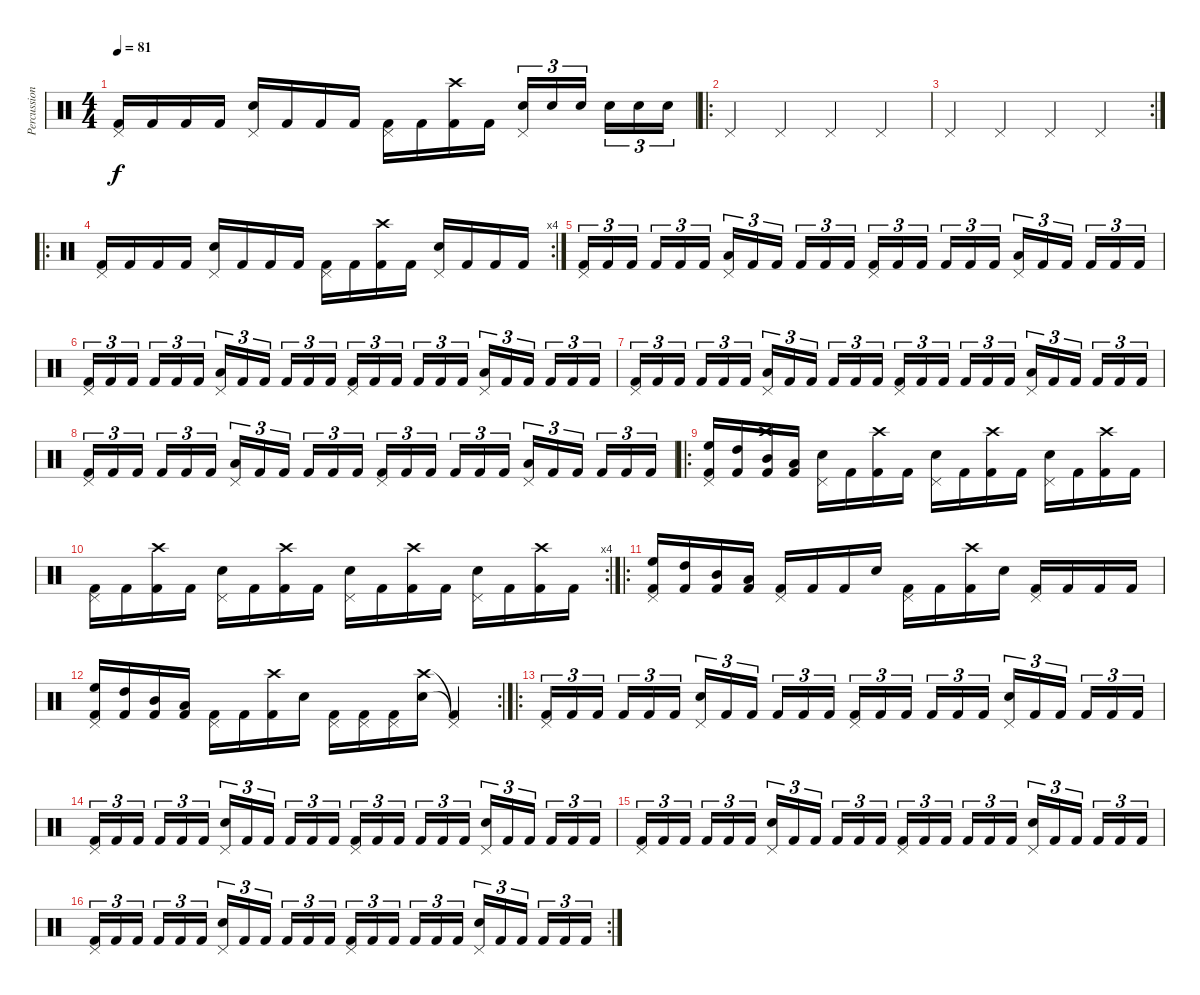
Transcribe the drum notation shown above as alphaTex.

\track ("Percussions" "Percussion") {instrument percussion}
\staff {score}
\articulation defaults
\ts (4 4)
\tempo 81
\clef neutral
\ks c
("Pedal Hi-Hat (hit)" "Kick (hit) 2").16{dy f} "Kick (hit) 2".16 "Kick (hit) 2".16 "Kick (hit) 2".16 ("Pedal Hi-Hat (hit)" "Snare (hit) 2").16 "Kick (hit) 2".16 "Kick (hit) 2".16 "Kick (hit) 2".16 ("Pedal Hi-Hat (hit)" "Kick (hit) 2").16 "Kick (hit) 2".16 ("Crash high (hit)" "Kick (hit) 2").16 "Kick (hit) 2".16 ("Pedal Hi-Hat (hit)" "Snare (hit) 2").16{tu (3 2)} "Snare (hit) 2".16{tu (3 2)} "Snare (hit) 2".16{tu (3 2)} "Snare (hit) 2".16{tu (3 2)} "Snare (hit) 2".16{tu (3 2)} "Snare (hit) 2".16{tu (3 2)} |
\ro "Pedal Hi-Hat (hit)".4 "Pedal Hi-Hat (hit)".4 "Pedal Hi-Hat (hit)".4 "Pedal Hi-Hat (hit)".4
|
\rc 2 "Pedal Hi-Hat (hit)".4 "Pedal Hi-Hat (hit)".4 "Pedal Hi-Hat (hit)".4 "Pedal Hi-Hat (hit)".4
|
\ro
\rc 4
("Pedal Hi-Hat (hit)" "Kick (hit) 2").16 "Kick (hit) 2".16 "Kick (hit) 2".16 "Kick (hit) 2".16 ("Pedal Hi-Hat (hit)" "Snare (hit) 2").16 "Kick (hit) 2".16 "Kick (hit) 2".16 "Kick (hit) 2".16 ("Pedal Hi-Hat (hit)" "Kick (hit) 2").16 "Kick (hit) 2".16 ("Crash high (hit)" "Kick (hit) 2").16 "Kick (hit) 2".16 ("Pedal Hi-Hat (hit)" "Snare (hit) 2").16 "Kick (hit) 2".16 "Kick (hit) 2".16 "Kick (hit) 2".16 |
("Pedal Hi-Hat (hit)" "Kick (hit) 2").16{tu (3 2)} "Kick (hit) 2".16{tu (3 2)} "Kick (hit) 2".16{tu (3 2)} "Kick (hit) 2".16{tu (3 2)} "Kick (hit) 2".16{tu (3 2)} "Kick (hit) 2".16{tu (3 2)} ("Pedal Hi-Hat (hit)" "Low Tom (hit)").16{tu (3 2)} "Kick (hit) 2".16{tu (3 2)} "Kick (hit) 2".16{tu (3 2)} "Kick (hit) 2".16{tu (3 2)} "Kick (hit) 2".16{tu (3 2)} "Kick (hit) 2".16{tu (3 2)} ("Pedal Hi-Hat (hit)" "Kick (hit) 2").16{tu (3 2)} "Kick (hit) 2".16{tu (3 2)} "Kick (hit) 2".16{tu (3 2)} "Kick (hit) 2".16{tu (3 2)} "Kick (hit) 2".16{tu (3 2)} "Kick (hit) 2".16{tu (3 2)} ("Pedal Hi-Hat (hit)" "Low Tom (hit)").16{tu (3 2)} "Kick (hit) 2".16{tu (3 2)} "Kick (hit) 2".16{tu (3 2)} "Kick (hit) 2".16{tu (3 2)} "Kick (hit) 2".16{tu (3 2)} "Kick (hit) 2".16{tu (3 2)} |
("Pedal Hi-Hat (hit)" "Kick (hit) 2").16{tu (3 2)} "Kick (hit) 2".16{tu (3 2)} "Kick (hit) 2".16{tu (3 2)} "Kick (hit) 2".16{tu (3 2)} "Kick (hit) 2".16{tu (3 2)} "Kick (hit) 2".16{tu (3 2)} ("Pedal Hi-Hat (hit)" "Low Tom (hit)").16{tu (3 2)} "Kick (hit) 2".16{tu (3 2)} "Kick (hit) 2".16{tu (3 2)} "Kick (hit) 2".16{tu (3 2)} "Kick (hit) 2".16{tu (3 2)} "Kick (hit) 2".16{tu (3 2)} ("Pedal Hi-Hat (hit)" "Kick (hit) 2").16{tu (3 2)} "Kick (hit) 2".16{tu (3 2)} "Kick (hit) 2".16{tu (3 2)} "Kick (hit) 2".16{tu (3 2)} "Kick (hit) 2".16{tu (3 2)} "Kick (hit) 2".16{tu (3 2)} ("Pedal Hi-Hat (hit)" "Low Tom (hit)").16{tu (3 2)} "Kick (hit) 2".16{tu (3 2)} "Kick (hit) 2".16{tu (3 2)} "Kick (hit) 2".16{tu (3 2)} "Kick (hit) 2".16{tu (3 2)} "Kick (hit) 2".16{tu (3 2)} |
("Pedal Hi-Hat (hit)" "Kick (hit) 2").16{tu (3 2)} "Kick (hit) 2".16{tu (3 2)} "Kick (hit) 2".16{tu (3 2)} "Kick (hit) 2".16{tu (3 2)} "Kick (hit) 2".16{tu (3 2)} "Kick (hit) 2".16{tu (3 2)} ("Pedal Hi-Hat (hit)" "Low Tom (hit)").16{tu (3 2)} "Kick (hit) 2".16{tu (3 2)} "Kick (hit) 2".16{tu (3 2)} "Kick (hit) 2".16{tu (3 2)} "Kick (hit) 2".16{tu (3 2)} "Kick (hit) 2".16{tu (3 2)} ("Pedal Hi-Hat (hit)" "Kick (hit) 2").16{tu (3 2)} "Kick (hit) 2".16{tu (3 2)} "Kick (hit) 2".16{tu (3 2)} "Kick (hit) 2".16{tu (3 2)} "Kick (hit) 2".16{tu (3 2)} "Kick (hit) 2".16{tu (3 2)} ("Pedal Hi-Hat (hit)" "Low Tom (hit)").16{tu (3 2)} "Kick (hit) 2".16{tu (3 2)} "Kick (hit) 2".16{tu (3 2)} "Kick (hit) 2".16{tu (3 2)} "Kick (hit) 2".16{tu (3 2)} "Kick (hit) 2".16{tu (3 2)} |
("Pedal Hi-Hat (hit)" "Kick (hit) 2").16{tu (3 2)} "Kick (hit) 2".16{tu (3 2)} "Kick (hit) 2".16{tu (3 2)} "Kick (hit) 2".16{tu (3 2)} "Kick (hit) 2".16{tu (3 2)} "Kick (hit) 2".16{tu (3 2)} ("Pedal Hi-Hat (hit)" "Low Tom (hit)").16{tu (3 2)} "Kick (hit) 2".16{tu (3 2)} "Kick (hit) 2".16{tu (3 2)} "Kick (hit) 2".16{tu (3 2)} "Kick (hit) 2".16{tu (3 2)} "Kick (hit) 2".16{tu (3 2)} ("Pedal Hi-Hat (hit)" "Kick (hit) 2").16{tu (3 2)} "Kick (hit) 2".16{tu (3 2)} "Kick (hit) 2".16{tu (3 2)} "Kick (hit) 2".16{tu (3 2)} "Kick (hit) 2".16{tu (3 2)} "Kick (hit) 2".16{tu (3 2)} ("Pedal Hi-Hat (hit)" "Low Tom (hit)").16{tu (3 2)} "Kick (hit) 2".16{tu (3 2)} "Kick (hit) 2".16{tu (3 2)} "Kick (hit) 2".16{tu (3 2)} "Kick (hit) 2".16{tu (3 2)} "Kick (hit) 2".16{tu (3 2)} |
\ro
("Pedal Hi-Hat (hit)" "High Floor Tom (hit)" "Kick (hit) 2").16 ("High Tom (hit)" "Kick (hit) 2").16 ("Crash high (hit)" "Mid Tom (hit)" "Kick (hit) 2").16 ("Low Tom (hit)" "Kick (hit) 2").16 ("Pedal Hi-Hat (hit)" "Snare (hit) 2").16 "Kick (hit) 2".16 ("Crash high (hit)" "Kick (hit) 2").16 "Kick (hit) 2".16 ("Pedal Hi-Hat (hit)" "Snare (hit) 2").16 "Kick (hit) 2".16 ("Crash high (hit)" "Kick (hit) 2").16 "Kick (hit) 2".16 ("Pedal Hi-Hat (hit)" "Snare (hit) 2").16 "Kick (hit) 2".16 ("Crash high (hit)" "Kick (hit) 2").16 "Kick (hit) 2".16 |
\rc 4
("Pedal Hi-Hat (hit)" "Kick (hit) 2").16 "Kick (hit) 2".16 ("Crash high (hit)" "Kick (hit) 2").16 "Kick (hit) 2".16 ("Pedal Hi-Hat (hit)" "Snare (hit) 2").16 "Kick (hit) 2".16 ("Crash high (hit)" "Kick (hit) 2").16 "Kick (hit) 2".16 ("Pedal Hi-Hat (hit)" "Snare (hit) 2").16 "Kick (hit) 2".16 ("Crash high (hit)" "Kick (hit) 2").16 "Kick (hit) 2".16 ("Pedal Hi-Hat (hit)" "Snare (hit) 2").16 "Kick (hit) 2".16 ("Crash high (hit)" "Kick (hit) 2").16 "Kick (hit) 2".16 |
\ro
("Pedal Hi-Hat (hit)" "High Floor Tom (hit)" "Kick (hit) 2").16 ("High Tom (hit)" "Kick (hit) 2").16 ("Mid Tom (hit)" "Kick (hit) 2").16 ("Low Tom (hit)" "Kick (hit) 2").16 ("Pedal Hi-Hat (hit)" "Kick (hit) 2").16 "Kick (hit) 2".16 "Kick (hit) 2".16 "Snare (hit) 2".16 ("Pedal Hi-Hat (hit)" "Kick (hit) 2").16 "Kick (hit) 2".16 ("Crash high (hit)" "Kick (hit) 2").16 "Snare (hit) 2".16 ("Pedal Hi-Hat (hit)" "Kick (hit) 2").16 "Kick (hit) 2".16 "Kick (hit) 2".16 "Kick (hit) 2".16 |
\rc 2
("Pedal Hi-Hat (hit)" "High Floor Tom (hit)" "Kick (hit) 2").16 ("High Tom (hit)" "Kick (hit) 2").16 ("Mid Tom (hit)" "Kick (hit) 2").16 ("Low Tom (hit)" "Kick (hit) 2").16 ("Pedal Hi-Hat (hit)" "Kick (hit) 2").16 "Kick (hit) 2".16 ("Crash high (hit)" "Kick (hit) 2").16 "Snare (hit) 2".16 ("Pedal Hi-Hat (hit)" "Kick (hit) 2").16 ("Pedal Hi-Hat (hit)" "Kick (hit) 2").16 ("Pedal Hi-Hat (hit)" "Kick (hit) 2").16 ("Crash high (hit)" "Snare (hit) 2").16 ("Pedal Hi-Hat (hit)"{t} "Kick (hit) 2"{t}).4 |
\ro
("Pedal Hi-Hat (hit)" "Kick (hit) 2").16{tu (3 2)} "Kick (hit) 2".16{tu (3 2)} "Kick (hit) 2".16{tu (3 2)} "Kick (hit) 2".16{tu (3 2)} "Kick (hit) 2".16{tu (3 2)} "Kick (hit) 2".16{tu (3 2)} ("Pedal Hi-Hat (hit)" "Snare (hit) 2").16{tu (3 2)} "Kick (hit) 2".16{tu (3 2)} "Kick (hit) 2".16{tu (3 2)} "Kick (hit) 2".16{tu (3 2)} "Kick (hit) 2".16{tu (3 2)} "Kick (hit) 2".16{tu (3 2)} ("Pedal Hi-Hat (hit)" "Kick (hit) 2").16{tu (3 2)} "Kick (hit) 2".16{tu (3 2)} "Kick (hit) 2".16{tu (3 2)} "Kick (hit) 2".16{tu (3 2)} "Kick (hit) 2".16{tu (3 2)} "Kick (hit) 2".16{tu (3 2)} ("Pedal Hi-Hat (hit)" "Snare (hit) 2").16{tu (3 2)} "Kick (hit) 2".16{tu (3 2)} "Kick (hit) 2".16{tu (3 2)} "Kick (hit) 2".16{tu (3 2)} "Kick (hit) 2".16{tu (3 2)} "Kick (hit) 2".16{tu (3 2)} |
("Pedal Hi-Hat (hit)" "Kick (hit) 2").16{tu (3 2)} "Kick (hit) 2".16{tu (3 2)} "Kick (hit) 2".16{tu (3 2)} "Kick (hit) 2".16{tu (3 2)} "Kick (hit) 2".16{tu (3 2)} "Kick (hit) 2".16{tu (3 2)} ("Pedal Hi-Hat (hit)" "Snare (hit) 2").16{tu (3 2)} "Kick (hit) 2".16{tu (3 2)} "Kick (hit) 2".16{tu (3 2)} "Kick (hit) 2".16{tu (3 2)} "Kick (hit) 2".16{tu (3 2)} "Kick (hit) 2".16{tu (3 2)} ("Pedal Hi-Hat (hit)" "Kick (hit) 2").16{tu (3 2)} "Kick (hit) 2".16{tu (3 2)} "Kick (hit) 2".16{tu (3 2)} "Kick (hit) 2".16{tu (3 2)} "Kick (hit) 2".16{tu (3 2)} "Kick (hit) 2".16{tu (3 2)} ("Pedal Hi-Hat (hit)" "Snare (hit) 2").16{tu (3 2)} "Kick (hit) 2".16{tu (3 2)} "Kick (hit) 2".16{tu (3 2)} "Kick (hit) 2".16{tu (3 2)} "Kick (hit) 2".16{tu (3 2)} "Kick (hit) 2".16{tu (3 2)} |
("Pedal Hi-Hat (hit)" "Kick (hit) 2").16{tu (3 2)} "Kick (hit) 2".16{tu (3 2)} "Kick (hit) 2".16{tu (3 2)} "Kick (hit) 2".16{tu (3 2)} "Kick (hit) 2".16{tu (3 2)} "Kick (hit) 2".16{tu (3 2)} ("Pedal Hi-Hat (hit)" "Snare (hit) 2").16{tu (3 2)} "Kick (hit) 2".16{tu (3 2)} "Kick (hit) 2".16{tu (3 2)} "Kick (hit) 2".16{tu (3 2)} "Kick (hit) 2".16{tu (3 2)} "Kick (hit) 2".16{tu (3 2)} ("Pedal Hi-Hat (hit)" "Kick (hit) 2").16{tu (3 2)} "Kick (hit) 2".16{tu (3 2)} "Kick (hit) 2".16{tu (3 2)} "Kick (hit) 2".16{tu (3 2)} "Kick (hit) 2".16{tu (3 2)} "Kick (hit) 2".16{tu (3 2)} ("Pedal Hi-Hat (hit)" "Snare (hit) 2").16{tu (3 2)} "Kick (hit) 2".16{tu (3 2)} "Kick (hit) 2".16{tu (3 2)} "Kick (hit) 2".16{tu (3 2)} "Kick (hit) 2".16{tu (3 2)} "Kick (hit) 2".16{tu (3 2)} |
\rc 2
("Pedal Hi-Hat (hit)" "Kick (hit) 2").16{tu (3 2)} "Kick (hit) 2".16{tu (3 2)} "Kick (hit) 2".16{tu (3 2)} "Kick (hit) 2".16{tu (3 2)} "Kick (hit) 2".16{tu (3 2)} "Kick (hit) 2".16{tu (3 2)} ("Pedal Hi-Hat (hit)" "Snare (hit) 2").16{tu (3 2)} "Kick (hit) 2".16{tu (3 2)} "Kick (hit) 2".16{tu (3 2)} "Kick (hit) 2".16{tu (3 2)} "Kick (hit) 2".16{tu (3 2)} "Kick (hit) 2".16{tu (3 2)} ("Pedal Hi-Hat (hit)" "Kick (hit) 2").16{tu (3 2)} "Kick (hit) 2".16{tu (3 2)} "Kick (hit) 2".16{tu (3 2)} "Kick (hit) 2".16{tu (3 2)} "Kick (hit) 2".16{tu (3 2)} "Kick (hit) 2".16{tu (3 2)} ("Pedal Hi-Hat (hit)" "Snare (hit) 2").16{tu (3 2)} "Kick (hit) 2".16{tu (3 2)} "Kick (hit) 2".16{tu (3 2)} "Kick (hit) 2".16{tu (3 2)} "Kick (hit) 2".16{tu (3 2)} "Kick (hit) 2".16{tu (3 2)}
